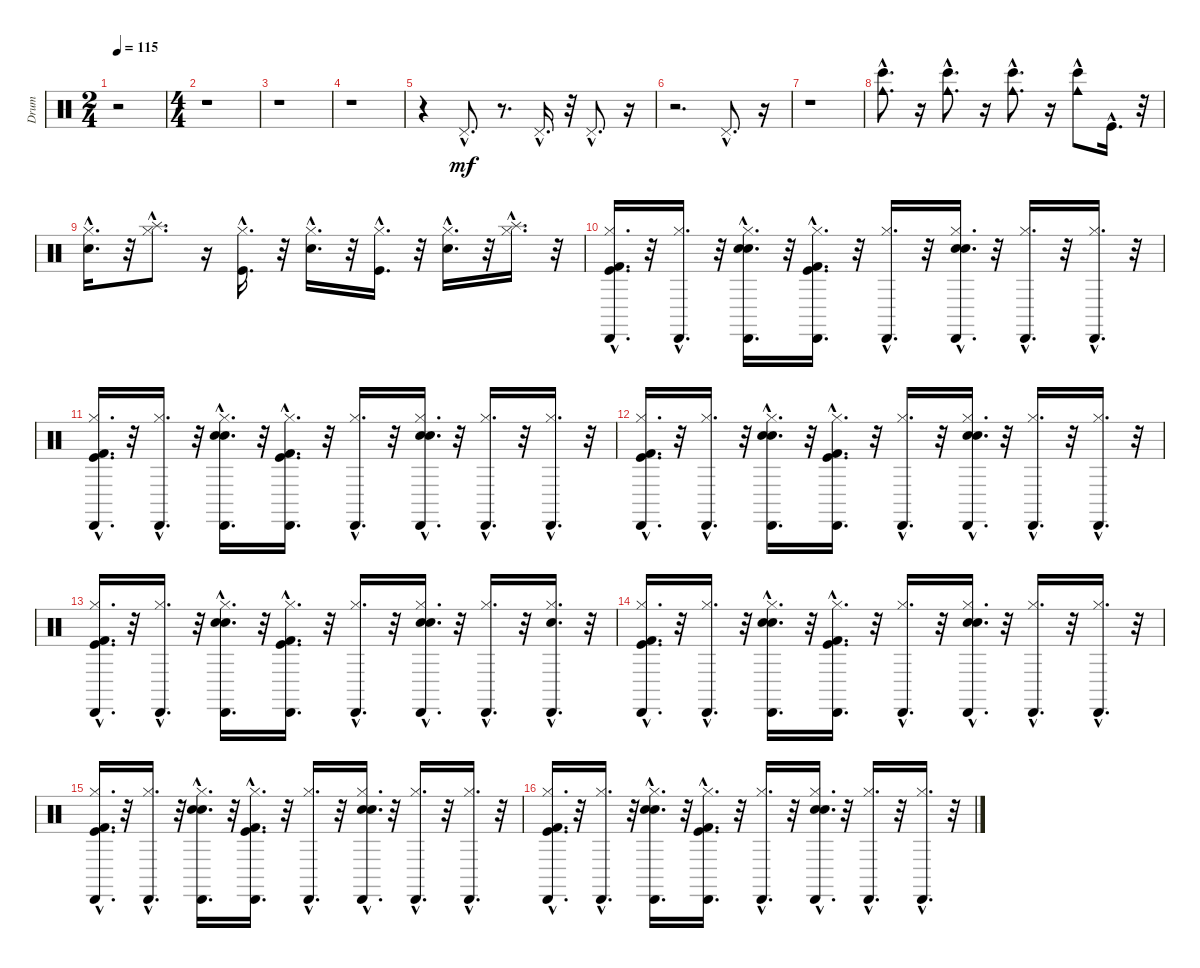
\track ("Drum" "Drum") {instrument percussion}
\staff {score}
\articulation defaults
\ts (2 4)
\tempo 115
\clef neutral
\ks c
r.2{dy mf} |
\ts (4 4)
r.1 |
r.1 |
r.1 |
r.4 "Pedal Hi-Hat (hit)"{hac}.8{d} r.8{d} "Pedal Hi-Hat (hit)"{hac}.16{d} r.32 "Pedal Hi-Hat (hit)"{hac}.8{d} r.16 |
r.2{d} "Pedal Hi-Hat (hit)"{hac}.8{d} r.16 |
r.1 |
("Bongo High (hit)"{hac} "Cowbell medium (hit)"{hac}).8{d} r.16 ("Bongo High (hit)"{hac} "Cowbell medium (hit)"{hac}).8{d} r.16 ("Bongo High (hit)"{hac} "Cowbell medium (hit)"{hac}).8{d} r.16 ("Bongo High (hit)" "Cowbell medium (hit)"{hac}).8 "Kick (hit)"{hac}.16{d} r.32 |
("Hi-Hat (closed)"{hac} "Snare (hit) 2"{hac}).16{d} r.32 ("Hi-Hat (closed)"{hac} "Splash (hit)"{hac}).8{d} r.16 ("Hi-Hat (closed)"{hac} "Kick (hit)"{hac}).16{d} r.32 ("Hi-Hat (closed)"{hac} "Snare (hit) 2"{hac}).16{d} r.32 ("Kick (hit)"{hac} "Hi-Hat (closed)"{hac}).16{d} r.32 ("Snare (hit) 2"{hac} "Hi-Hat (closed)"{hac}).16{d} r.32 ("Hi-Hat (closed)"{hac} "Splash (hit)"{hac}).16{d} r.32 |
("Kick (hit)"{hac} "Cabasa (hit)"{hac} "Kick (hit) 2"{hac} "Hi-Hat (closed)"{hac}).16{d} r.32 ("Cabasa (hit)"{hac} "Hi-Hat (closed)"{hac}).16{d} r.32 ("Hi-Hat (closed)"{hac} "Cabasa (hit)"{hac} "Electric Snare (hit)"{hac} "Snare (hit) 2"{hac}).16{d} r.32 ("Kick (hit)"{hac} "Cabasa (hit)"{hac} "Kick (hit) 2"{hac} "Hi-Hat (closed)"{hac}).16{d} r.32 ("Cabasa (hit)"{hac} "Hi-Hat (closed)"{hac}).16{d} r.32 ("Electric Snare (hit)"{hac} "Cabasa (hit)"{hac} "Hi-Hat (closed)"{hac} "Snare (hit) 2"{hac}).16{d} r.32 ("Cabasa (hit)"{hac} "Hi-Hat (closed)"{hac}).16{d} r.32 ("Cabasa (hit)"{hac} "Hi-Hat (closed)"{hac}).16{d} r.32 |
("Hi-Hat (closed)"{hac} "Kick (hit)"{hac} "Kick (hit) 2"{hac} "Cabasa (hit)"{hac}).16{d} r.32 ("Hi-Hat (closed)"{hac} "Cabasa (hit)"{hac}).16{d} r.32 ("Hi-Hat (closed)"{hac} "Snare (hit) 2"{hac} "Electric Snare (hit)"{hac} "Cabasa (hit)"{hac}).16{d} r.32 ("Hi-Hat (closed)"{hac} "Kick (hit)"{hac} "Kick (hit) 2"{hac} "Cabasa (hit)"{hac}).16{d} r.32 ("Hi-Hat (closed)"{hac} "Cabasa (hit)"{hac}).16{d} r.32 ("Hi-Hat (closed)"{hac} "Snare (hit) 2"{hac} "Electric Snare (hit)"{hac} "Cabasa (hit)"{hac}).16{d} r.32 ("Hi-Hat (closed)"{hac} "Cabasa (hit)"{hac}).16{d} r.32 ("Hi-Hat (closed)"{hac} "Cabasa (hit)"{hac}).16{d} r.32 |
("Hi-Hat (closed)"{hac} "Kick (hit)"{hac} "Kick (hit) 2"{hac} "Cabasa (hit)"{hac}).16{d} r.32 ("Hi-Hat (closed)"{hac} "Cabasa (hit)"{hac}).16{d} r.32 ("Hi-Hat (closed)"{hac} "Snare (hit) 2"{hac} "Electric Snare (hit)"{hac} "Cabasa (hit)"{hac}).16{d} r.32 ("Hi-Hat (closed)"{hac} "Kick (hit)"{hac} "Kick (hit) 2"{hac} "Cabasa (hit)"{hac}).16{d} r.32 ("Hi-Hat (closed)"{hac} "Cabasa (hit)"{hac}).16{d} r.32 ("Hi-Hat (closed)"{hac} "Snare (hit) 2"{hac} "Electric Snare (hit)"{hac} "Cabasa (hit)"{hac}).16{d} r.32 ("Hi-Hat (closed)"{hac} "Cabasa (hit)"{hac}).16{d} r.32 ("Hi-Hat (closed)"{hac} "Cabasa (hit)"{hac}).16{d} r.32 |
("Hi-Hat (closed)"{hac} "Kick (hit)"{hac} "Kick (hit) 2"{hac} "Cabasa (hit)"{hac}).16{d} r.32 ("Hi-Hat (closed)"{hac} "Cabasa (hit)"{hac}).16{d} r.32 ("Hi-Hat (closed)"{hac} "Snare (hit) 2"{hac} "Electric Snare (hit)"{hac} "Cabasa (hit)"{hac}).16{d} r.32 ("Hi-Hat (closed)"{hac} "Kick (hit)"{hac} "Kick (hit) 2"{hac} "Cabasa (hit)"{hac}).16{d} r.32 ("Hi-Hat (closed)"{hac} "Cabasa (hit)"{hac}).16{d} r.32 ("Hi-Hat (closed)"{hac} "Snare (hit) 2"{hac} "Electric Snare (hit)"{hac} "Cabasa (hit)"{hac}).16{d} r.32 ("Hi-Hat (closed)"{hac} "Cabasa (hit)"{hac}).16{d} r.32 ("Snare (hit) 2"{hac} "Hi-Hat (closed)"{hac} "Cabasa (hit)"{hac}).16{d} r.32 |
("Hi-Hat (closed)"{hac} "Kick (hit)"{hac} "Kick (hit) 2"{hac} "Cabasa (hit)"{hac}).16{d} r.32 ("Hi-Hat (closed)"{hac} "Cabasa (hit)"{hac}).16{d} r.32 ("Hi-Hat (closed)"{hac} "Snare (hit) 2"{hac} "Electric Snare (hit)"{hac} "Cabasa (hit)"{hac}).16{d} r.32 ("Hi-Hat (closed)"{hac} "Kick (hit)"{hac} "Kick (hit) 2"{hac} "Cabasa (hit)"{hac}).16{d} r.32 ("Hi-Hat (closed)"{hac} "Cabasa (hit)"{hac}).16{d} r.32 ("Hi-Hat (closed)"{hac} "Snare (hit) 2"{hac} "Electric Snare (hit)"{hac} "Cabasa (hit)"{hac}).16{d} r.32 ("Hi-Hat (closed)"{hac} "Cabasa (hit)"{hac}).16{d} r.32 ("Hi-Hat (closed)"{hac} "Cabasa (hit)"{hac}).16{d} r.32 |
("Cabasa (hit)"{hac} "Kick (hit) 2"{hac} "Kick (hit)"{hac} "Hi-Hat (closed)"{hac}).16{d} r.32 ("Cabasa (hit)"{hac} "Hi-Hat (closed)"{hac}).16{d} r.32 ("Cabasa (hit)"{hac} "Electric Snare (hit)"{hac} "Snare (hit) 2"{hac} "Hi-Hat (closed)"{hac}).16{d} r.32 ("Cabasa (hit)"{hac} "Kick (hit) 2"{hac} "Kick (hit)"{hac} "Hi-Hat (closed)"{hac}).16{d} r.32 ("Cabasa (hit)"{hac} "Hi-Hat (closed)"{hac}).16{d} r.32 ("Cabasa (hit)"{hac} "Electric Snare (hit)"{hac} "Snare (hit) 2"{hac} "Hi-Hat (closed)"{hac}).16{d} r.32 ("Cabasa (hit)"{hac} "Hi-Hat (closed)"{hac}).16{d} r.32 ("Cabasa (hit)"{hac} "Hi-Hat (closed)"{hac}).16{d} r.32 |
("Cabasa (hit)"{hac} "Kick (hit) 2"{hac} "Kick (hit)"{hac} "Hi-Hat (closed)"{hac}).16{d} r.32 ("Cabasa (hit)"{hac} "Hi-Hat (closed)"{hac}).16{d} r.32 ("Cabasa (hit)"{hac} "Electric Snare (hit)"{hac} "Snare (hit) 2"{hac} "Hi-Hat (closed)"{hac}).16{d} r.32 ("Cabasa (hit)"{hac} "Kick (hit) 2"{hac} "Kick (hit)"{hac} "Hi-Hat (closed)"{hac}).16{d} r.32 ("Cabasa (hit)"{hac} "Hi-Hat (closed)"{hac}).16{d} r.32 ("Cabasa (hit)"{hac} "Electric Snare (hit)"{hac} "Snare (hit) 2"{hac} "Hi-Hat (closed)"{hac}).16{d} r.32 ("Cabasa (hit)"{hac} "Hi-Hat (closed)"{hac}).16{d} r.32 ("Cabasa (hit)"{hac} "Hi-Hat (closed)"{hac}).16{d} r.32
